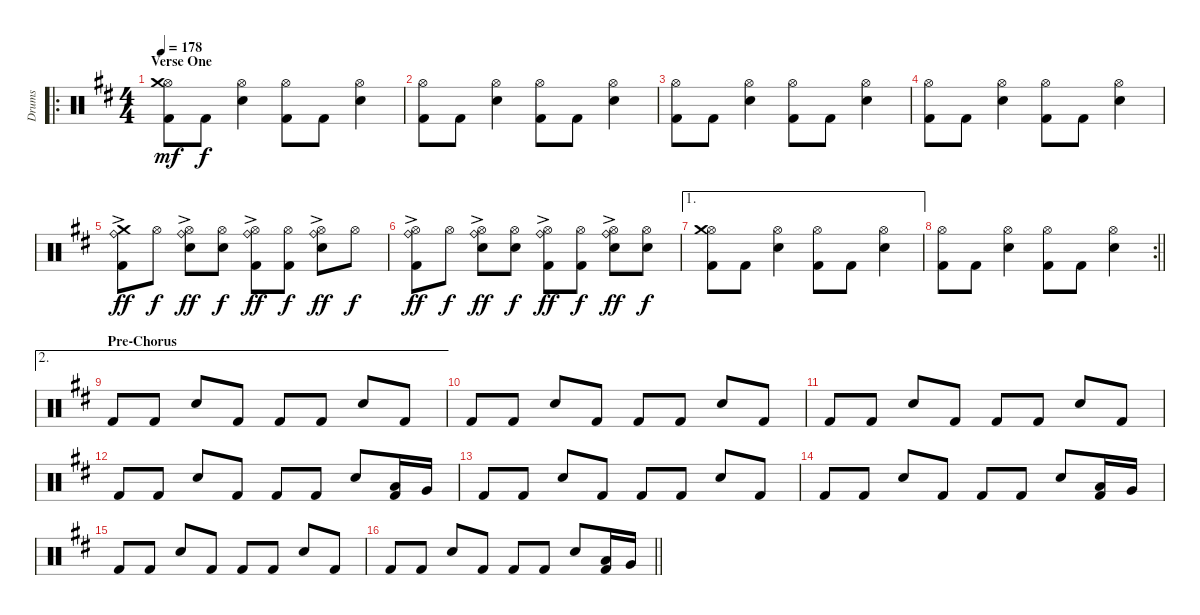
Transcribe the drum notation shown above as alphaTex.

\track ("Drums" "Drums") {instrument percussion}
\staff {score}
\articulation defaults
\ro
\ts (4 4)
\section ("" "Verse One")
\tempo 178
\clef neutral
\ks bminor
("Hi-Hat (open)" "Crash medium (hit)" "Kick (hit) 2").8{dy mf} "Kick (hit) 2".8{dy f} ("Hi-Hat (open)" "Snare (hit) 2").4 ("Hi-Hat (open)" "Kick (hit) 2").8 "Kick (hit) 2".8 ("Hi-Hat (open)" "Snare (hit) 2").4 |
("Hi-Hat (open)" "Kick (hit) 2").8 "Kick (hit) 2".8 ("Hi-Hat (open)" "Snare (hit) 2").4 ("Hi-Hat (open)" "Kick (hit) 2").8 "Kick (hit) 2".8 ("Hi-Hat (open)" "Snare (hit) 2").4 |
("Hi-Hat (open)" "Kick (hit) 2").8 "Kick (hit) 2".8 ("Hi-Hat (open)" "Snare (hit) 2").4 ("Hi-Hat (open)" "Kick (hit) 2").8 "Kick (hit) 2".8 ("Hi-Hat (open)" "Snare (hit) 2").4 |
("Hi-Hat (open)" "Kick (hit) 2").8 "Kick (hit) 2".8 ("Hi-Hat (open)" "Snare (hit) 2").4 ("Hi-Hat (open)" "Kick (hit) 2").8 "Kick (hit) 2".8 ("Hi-Hat (open)" "Snare (hit) 2").4 |
("Ride (bell)"{ac} "Crash medium (hit)" "Kick (hit) 2").8{dy ff} "Hi-Hat (open)".8{dy f} ("Hi-Hat (open)" "Ride (bell)"{ac} "Snare (hit) 2").8{dy ff} ("Hi-Hat (open)" "Snare (hit) 2").8{dy f} ("Hi-Hat (open)" "Ride (bell)"{ac} "Kick (hit) 2").8{dy ff} ("Hi-Hat (open)" "Kick (hit) 2").8{dy f} ("Hi-Hat (open)" "Ride (bell)"{ac} "Snare (hit) 2").8{dy ff} "Hi-Hat (open)".8{dy f} |
("Hi-Hat (open)" "Ride (bell)"{ac} "Kick (hit) 2").8{dy ff} "Hi-Hat (open)".8{dy f} ("Hi-Hat (open)" "Ride (bell)"{ac} "Snare (hit) 2").8{dy ff} ("Hi-Hat (open)" "Snare (hit) 2").8{dy f} ("Hi-Hat (open)" "Ride (bell)"{ac} "Kick (hit) 2").8{dy ff} ("Hi-Hat (open)" "Kick (hit) 2").8{dy f} ("Hi-Hat (open)" "Ride (bell)"{ac} "Snare (hit) 2").8{dy ff} ("Hi-Hat (open)" "Snare (hit) 2").8{dy f} |
\ae 1
("Hi-Hat (open)" "Crash medium (hit)" "Kick (hit) 2").8 "Kick (hit) 2".8 ("Hi-Hat (open)" "Snare (hit) 2").4 ("Hi-Hat (open)" "Kick (hit) 2").8 "Kick (hit) 2".8 ("Hi-Hat (open)" "Snare (hit) 2").4 |
\rc 2
\barLineRight lightlight
("Hi-Hat (open)" "Kick (hit) 2").8 "Kick (hit) 2".8 ("Hi-Hat (open)" "Snare (hit) 2").4 ("Hi-Hat (open)" "Kick (hit) 2").8 "Kick (hit) 2".8 ("Hi-Hat (open)" "Snare (hit) 2").4 |
\ae 2
\section ("" "Pre-Chorus")
"Kick (hit) 2".8 "Kick (hit) 2".8 "Snare (hit) 2".8 "Kick (hit) 2".8 "Kick (hit) 2".8 "Kick (hit) 2".8 "Snare (hit) 2".8 "Kick (hit) 2".8 |
"Kick (hit) 2".8 "Kick (hit) 2".8 "Snare (hit) 2".8 "Kick (hit) 2".8 "Kick (hit) 2".8 "Kick (hit) 2".8 "Snare (hit) 2".8 "Kick (hit) 2".8 |
"Kick (hit) 2".8 "Kick (hit) 2".8 "Snare (hit) 2".8 "Kick (hit) 2".8 "Kick (hit) 2".8 "Kick (hit) 2".8 "Snare (hit) 2".8 "Kick (hit) 2".8 |
"Kick (hit) 2".8 "Kick (hit) 2".8 "Snare (hit) 2".8 "Kick (hit) 2".8 "Kick (hit) 2".8 "Kick (hit) 2".8 "Snare (hit) 2".8 ("Low Tom (hit)" "Kick (hit) 2").16 "Very Low Tom (hit)".16 |
"Kick (hit) 2".8 "Kick (hit) 2".8 "Snare (hit) 2".8 "Kick (hit) 2".8 "Kick (hit) 2".8 "Kick (hit) 2".8 "Snare (hit) 2".8 "Kick (hit) 2".8 |
"Kick (hit) 2".8 "Kick (hit) 2".8 "Snare (hit) 2".8 "Kick (hit) 2".8 "Kick (hit) 2".8 "Kick (hit) 2".8 "Snare (hit) 2".8 ("Low Tom (hit)" "Kick (hit) 2").16 "Very Low Tom (hit)".16 |
"Kick (hit) 2".8 "Kick (hit) 2".8 "Snare (hit) 2".8 "Kick (hit) 2".8 "Kick (hit) 2".8 "Kick (hit) 2".8 "Snare (hit) 2".8 "Kick (hit) 2".8 |
\barLineRight lightlight "Kick (hit) 2".8 "Kick (hit) 2".8 "Snare (hit) 2".8 "Kick (hit) 2".8 "Kick (hit) 2".8 "Kick (hit) 2".8 "Snare (hit) 2".8
("Low Tom (hit)" "Kick (hit) 2").16 "Very Low Tom (hit)".16
